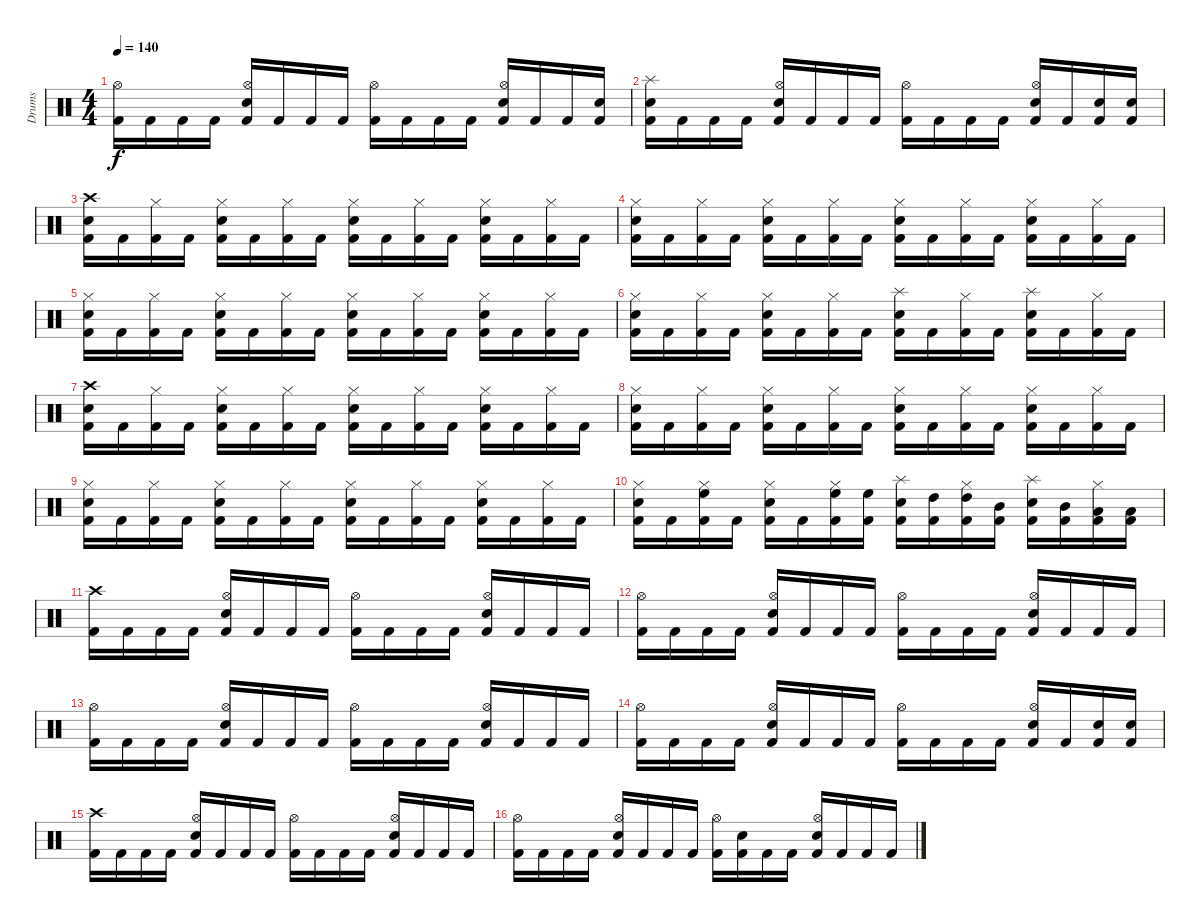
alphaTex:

\track ("Drums" "Drums") {instrument percussion}
\staff {score}
\articulation defaults
\ts (4 4)
\tempo 140
\clef neutral
\ks c
("Kick (hit) 2" "Hi-Hat (open)").16{dy f} "Kick (hit) 2".16 "Kick (hit) 2".16 "Kick (hit) 2".16 ("Kick (hit) 2" "Electric Snare (hit)" "Hi-Hat (open)").16 "Kick (hit) 2".16 "Kick (hit) 2".16 "Kick (hit) 2".16 ("Kick (hit) 2" "Hi-Hat (open)").16 "Kick (hit) 2".16 "Kick (hit) 2".16 "Kick (hit) 2".16 ("Kick (hit) 2" "Electric Snare (hit)" "Hi-Hat (open)").16 "Kick (hit) 2".16 "Kick (hit) 2".16 ("Kick (hit) 2" "Electric Snare (hit)").16 |
("Kick (hit) 2" "Electric Snare (hit)" "Splash (hit)").16 "Kick (hit) 2".16 "Kick (hit) 2".16 "Kick (hit) 2".16 ("Kick (hit) 2" "Electric Snare (hit)" "Hi-Hat (open)").16 "Kick (hit) 2".16 "Kick (hit) 2".16 "Kick (hit) 2".16 ("Kick (hit) 2" "Hi-Hat (open)").16 "Kick (hit) 2".16 "Kick (hit) 2".16 "Kick (hit) 2".16 ("Kick (hit) 2" "Electric Snare (hit)" "Hi-Hat (open)").16 "Kick (hit) 2".16 ("Kick (hit) 2" "Electric Snare (hit)").16 ("Kick (hit) 2" "Electric Snare (hit)").16 |
("Kick (hit) 2" "Electric Snare (hit)" "Crash high (hit)").16 "Kick (hit) 2".16 ("Kick (hit) 2" "Hi-Hat (closed)").16 "Kick (hit) 2".16 ("Kick (hit) 2" "Electric Snare (hit)" "Hi-Hat (closed)").16 "Kick (hit) 2".16 ("Kick (hit) 2" "Hi-Hat (closed)").16 "Kick (hit) 2".16 ("Kick (hit) 2" "Electric Snare (hit)" "Hi-Hat (closed)").16 "Kick (hit) 2".16 ("Kick (hit) 2" "Hi-Hat (closed)").16 "Kick (hit) 2".16 ("Kick (hit) 2" "Electric Snare (hit)" "Hi-Hat (closed)").16 "Kick (hit) 2".16 ("Kick (hit) 2" "Hi-Hat (closed)").16 "Kick (hit) 2".16 |
("Kick (hit) 2" "Electric Snare (hit)" "Hi-Hat (closed)").16 "Kick (hit) 2".16 ("Kick (hit) 2" "Hi-Hat (closed)").16 "Kick (hit) 2".16 ("Kick (hit) 2" "Electric Snare (hit)" "Hi-Hat (closed)").16 "Kick (hit) 2".16 ("Kick (hit) 2" "Hi-Hat (closed)").16 "Kick (hit) 2".16 ("Kick (hit) 2" "Electric Snare (hit)" "Hi-Hat (closed)").16 "Kick (hit) 2".16 ("Kick (hit) 2" "Hi-Hat (closed)").16 "Kick (hit) 2".16 ("Kick (hit) 2" "Electric Snare (hit)" "Hi-Hat (closed)").16 "Kick (hit) 2".16 ("Kick (hit) 2" "Hi-Hat (closed)").16 "Kick (hit) 2".16 |
("Kick (hit) 2" "Electric Snare (hit)" "Hi-Hat (closed)").16 "Kick (hit) 2".16 ("Kick (hit) 2" "Hi-Hat (closed)").16 "Kick (hit) 2".16 ("Kick (hit) 2" "Electric Snare (hit)" "Hi-Hat (closed)").16 "Kick (hit) 2".16 ("Kick (hit) 2" "Hi-Hat (closed)").16 "Kick (hit) 2".16 ("Kick (hit) 2" "Electric Snare (hit)" "Hi-Hat (closed)").16 "Kick (hit) 2".16 ("Kick (hit) 2" "Hi-Hat (closed)").16 "Kick (hit) 2".16 ("Kick (hit) 2" "Electric Snare (hit)" "Hi-Hat (closed)").16 "Kick (hit) 2".16 ("Kick (hit) 2" "Hi-Hat (closed)").16 "Kick (hit) 2".16 |
("Kick (hit) 2" "Electric Snare (hit)" "Hi-Hat (closed)").16 "Kick (hit) 2".16 ("Kick (hit) 2" "Hi-Hat (closed)").16 "Kick (hit) 2".16 ("Kick (hit) 2" "Electric Snare (hit)" "Hi-Hat (closed)").16 "Kick (hit) 2".16 ("Kick (hit) 2" "Hi-Hat (closed)").16 "Kick (hit) 2".16 ("Kick (hit) 2" "Electric Snare (hit)" "Splash (hit)").16 "Kick (hit) 2".16 ("Kick (hit) 2" "Hi-Hat (closed)").16 "Kick (hit) 2".16 ("Kick (hit) 2" "Electric Snare (hit)" "Splash (hit)").16 "Kick (hit) 2".16 ("Kick (hit) 2" "Hi-Hat (closed)").16 "Kick (hit) 2".16 |
("Kick (hit) 2" "Electric Snare (hit)" "Crash high (hit)").16 "Kick (hit) 2".16 ("Kick (hit) 2" "Hi-Hat (closed)").16 "Kick (hit) 2".16 ("Kick (hit) 2" "Electric Snare (hit)" "Hi-Hat (closed)").16 "Kick (hit) 2".16 ("Kick (hit) 2" "Hi-Hat (closed)").16 "Kick (hit) 2".16 ("Kick (hit) 2" "Electric Snare (hit)" "Hi-Hat (closed)").16 "Kick (hit) 2".16 ("Kick (hit) 2" "Hi-Hat (closed)").16 "Kick (hit) 2".16 ("Kick (hit) 2" "Electric Snare (hit)" "Hi-Hat (closed)").16 "Kick (hit) 2".16 ("Kick (hit) 2" "Hi-Hat (closed)").16 "Kick (hit) 2".16 |
("Kick (hit) 2" "Electric Snare (hit)" "Hi-Hat (closed)").16 "Kick (hit) 2".16 ("Kick (hit) 2" "Hi-Hat (closed)").16 "Kick (hit) 2".16 ("Kick (hit) 2" "Electric Snare (hit)" "Hi-Hat (closed)").16 "Kick (hit) 2".16 ("Kick (hit) 2" "Hi-Hat (closed)").16 "Kick (hit) 2".16 ("Kick (hit) 2" "Electric Snare (hit)" "Hi-Hat (closed)").16 "Kick (hit) 2".16 ("Kick (hit) 2" "Hi-Hat (closed)").16 "Kick (hit) 2".16 ("Kick (hit) 2" "Electric Snare (hit)" "Hi-Hat (closed)").16 "Kick (hit) 2".16 ("Kick (hit) 2" "Hi-Hat (closed)").16 "Kick (hit) 2".16 |
("Kick (hit) 2" "Electric Snare (hit)" "Hi-Hat (closed)").16 "Kick (hit) 2".16 ("Kick (hit) 2" "Hi-Hat (closed)").16 "Kick (hit) 2".16 ("Kick (hit) 2" "Electric Snare (hit)" "Hi-Hat (closed)").16 "Kick (hit) 2".16 ("Kick (hit) 2" "Hi-Hat (closed)").16 "Kick (hit) 2".16 ("Kick (hit) 2" "Electric Snare (hit)" "Hi-Hat (closed)").16 "Kick (hit) 2".16 ("Kick (hit) 2" "Hi-Hat (closed)").16 "Kick (hit) 2".16 ("Kick (hit) 2" "Electric Snare (hit)" "Hi-Hat (closed)").16 "Kick (hit) 2".16 ("Kick (hit) 2" "Hi-Hat (closed)").16 "Kick (hit) 2".16 |
("Kick (hit) 2" "Electric Snare (hit)" "Hi-Hat (closed)").16 "Kick (hit) 2".16 ("Kick (hit) 2" "Hi-Hat (closed)" "High Floor Tom (hit)").16 "Kick (hit) 2".16 ("Kick (hit) 2" "Electric Snare (hit)" "Hi-Hat (closed)").16 "Kick (hit) 2".16 ("Kick (hit) 2" "Hi-Hat (closed)" "High Floor Tom (hit)").16 ("Kick (hit) 2" "High Floor Tom (hit)").16 ("Kick (hit) 2" "Electric Snare (hit)" "Splash (hit)").16 ("Kick (hit) 2" "High Tom (hit)").16 ("Kick (hit) 2" "Hi-Hat (closed)" "High Tom (hit)").16 ("Kick (hit) 2" "Mid Tom (hit)").16 ("Kick (hit) 2" "Electric Snare (hit)" "Splash (hit)").16 ("Kick (hit) 2" "Mid Tom (hit)").16 ("Kick (hit) 2" "Hi-Hat (closed)" "Low Tom (hit)").16 ("Kick (hit) 2" "Low Tom (hit)").16 |
("Kick (hit) 2" "Crash high (hit)").16 "Kick (hit) 2".16 "Kick (hit) 2".16 "Kick (hit) 2".16 ("Kick (hit) 2" "Electric Snare (hit)" "Hi-Hat (open)").16 "Kick (hit) 2".16 "Kick (hit) 2".16 "Kick (hit) 2".16 ("Kick (hit) 2" "Hi-Hat (open)").16 "Kick (hit) 2".16 "Kick (hit) 2".16 "Kick (hit) 2".16 ("Kick (hit) 2" "Electric Snare (hit)" "Hi-Hat (open)").16 "Kick (hit) 2".16 "Kick (hit) 2".16 "Kick (hit) 2".16 |
("Kick (hit) 2" "Hi-Hat (open)").16 "Kick (hit) 2".16 "Kick (hit) 2".16 "Kick (hit) 2".16 ("Kick (hit) 2" "Electric Snare (hit)" "Hi-Hat (open)").16 "Kick (hit) 2".16 "Kick (hit) 2".16 "Kick (hit) 2".16 ("Kick (hit) 2" "Hi-Hat (open)").16 "Kick (hit) 2".16 "Kick (hit) 2".16 "Kick (hit) 2".16 ("Kick (hit) 2" "Electric Snare (hit)" "Hi-Hat (open)").16 "Kick (hit) 2".16 "Kick (hit) 2".16 "Kick (hit) 2".16 |
("Kick (hit) 2" "Hi-Hat (open)").16 "Kick (hit) 2".16 "Kick (hit) 2".16 "Kick (hit) 2".16 ("Kick (hit) 2" "Electric Snare (hit)" "Hi-Hat (open)").16 "Kick (hit) 2".16 "Kick (hit) 2".16 "Kick (hit) 2".16 ("Kick (hit) 2" "Hi-Hat (open)").16 "Kick (hit) 2".16 "Kick (hit) 2".16 "Kick (hit) 2".16 ("Kick (hit) 2" "Electric Snare (hit)" "Hi-Hat (open)").16 "Kick (hit) 2".16 "Kick (hit) 2".16 "Kick (hit) 2".16 |
("Kick (hit) 2" "Hi-Hat (open)").16 "Kick (hit) 2".16 "Kick (hit) 2".16 "Kick (hit) 2".16 ("Kick (hit) 2" "Electric Snare (hit)" "Hi-Hat (open)").16 "Kick (hit) 2".16 "Kick (hit) 2".16 "Kick (hit) 2".16 ("Kick (hit) 2" "Hi-Hat (open)").16 "Kick (hit) 2".16 "Kick (hit) 2".16 "Kick (hit) 2".16 ("Kick (hit) 2" "Electric Snare (hit)" "Hi-Hat (open)").16 "Kick (hit) 2".16 ("Kick (hit) 2" "Electric Snare (hit)").16 ("Kick (hit) 2" "Electric Snare (hit)").16 |
("Kick (hit) 2" "Crash high (hit)").16 "Kick (hit) 2".16 "Kick (hit) 2".16 "Kick (hit) 2".16 ("Kick (hit) 2" "Electric Snare (hit)" "Hi-Hat (open)").16 "Kick (hit) 2".16 "Kick (hit) 2".16 "Kick (hit) 2".16 ("Kick (hit) 2" "Hi-Hat (open)").16 "Kick (hit) 2".16 "Kick (hit) 2".16 "Kick (hit) 2".16 ("Kick (hit) 2" "Electric Snare (hit)" "Hi-Hat (open)").16 "Kick (hit) 2".16 "Kick (hit) 2".16 "Kick (hit) 2".16 |
("Kick (hit) 2" "Hi-Hat (open)").16 "Kick (hit) 2".16 "Kick (hit) 2".16 "Kick (hit) 2".16 ("Kick (hit) 2" "Electric Snare (hit)" "Hi-Hat (open)").16 "Kick (hit) 2".16 "Kick (hit) 2".16 "Kick (hit) 2".16 ("Kick (hit) 2" "Hi-Hat (open)").16 ("Kick (hit) 2" "Electric Snare (hit)").16 "Kick (hit) 2".16 "Kick (hit) 2".16 ("Kick (hit) 2" "Electric Snare (hit)" "Hi-Hat (open)").16 "Kick (hit) 2".16 "Kick (hit) 2".16 "Kick (hit) 2".16
